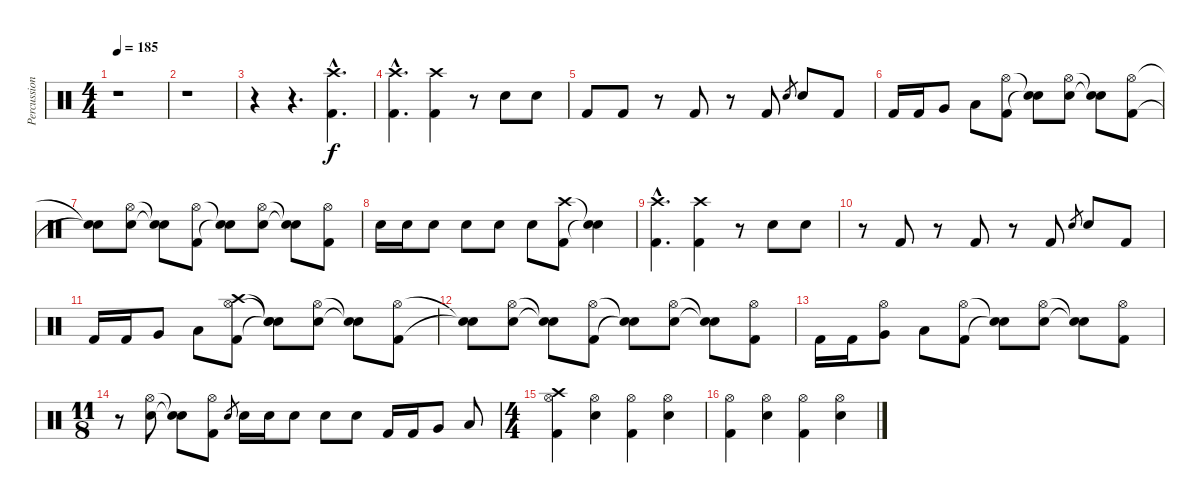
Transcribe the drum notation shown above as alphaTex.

\track ("Percussion" "Percussion") {instrument percussion}
\staff {score}
\articulation defaults
\ts (4 4)
\tempo 185
\clef neutral
\ks c
r.1{dy f} |
r.1 |
r.4 r.4{d} ("Crash high (hit)"{hac} "Kick (hit) 2"{hac}).4{d} |
("Crash high (hit)"{hac} "Kick (hit) 2"{hac}).4{d} ("Crash high (hit)" "Kick (hit) 2").4 r.8 "Electric Snare (hit)".8 "Electric Snare (hit)".8 |
"Kick (hit) 2".8 "Kick (hit) 2".8 r.8 "Kick (hit) 2".8 r.8 "Kick (hit) 2".8 "Electric Snare (hit)".8{gr} "Electric Snare (hit)".8 "Kick (hit) 2".8 |
"Kick (hit) 2".16 "Kick (hit) 2".16 "Very Low Tom (hit)".8 "Low Floor Tom (hit)".8 ("Hi-Hat (open)" "Kick (hit) 2").8 ("Snare (hit)"{t} "Snare (hit)"{t}).8 ("Hi-Hat (open)" "Electric Snare (hit)").8 ("Snare (hit)"{t} "Snare (hit)"{t}).8 ("Hi-Hat (open)" "Kick (hit) 2").8 |
("Snare (hit)"{t} "Snare (hit)"{t}).8 ("Hi-Hat (open)" "Electric Snare (hit)").8 ("Snare (hit)"{t} "Snare (hit)"{t}).8 ("Hi-Hat (open)" "Kick (hit) 2").8 ("Snare (hit)"{t} "Snare (hit)"{t}).8 ("Hi-Hat (open)" "Electric Snare (hit)").8 ("Snare (hit)"{t} "Snare (hit)"{t}).8 ("Hi-Hat (open)" "Kick (hit) 2").8 |
"Electric Snare (hit)".16 "Electric Snare (hit)".16 "Electric Snare (hit)".8 "Electric Snare (hit)".8 "Electric Snare (hit)".8 "Electric Snare (hit)".8 ("Crash high (hit)" "Kick (hit) 2").8 ("Snare (hit)"{t} "Snare (hit)"{t}).4 |
("Crash high (hit)"{hac} "Kick (hit) 2"{hac}).4{d} ("Crash high (hit)" "Kick (hit) 2").4 r.8 "Electric Snare (hit)".8 "Electric Snare (hit)".8 |
r.8 "Kick (hit) 2".8 r.8 "Kick (hit) 2".8 r.8 "Kick (hit) 2".8 "Electric Snare (hit)".8{gr} "Electric Snare (hit)".8 "Kick (hit) 2".8 |
"Kick (hit) 2".16 "Kick (hit) 2".16 "Very Low Tom (hit)".8 "Low Floor Tom (hit)".8 ("Hi-Hat (open)" "Crash high (hit)" "Kick (hit) 2").8 ("Snare (hit)"{t} "Snare (hit)"{t} "Snare (hit)"{t}).8 ("Hi-Hat (open)" "Electric Snare (hit)").8 ("Snare (hit)"{t} "Snare (hit)"{t}).8 ("Hi-Hat (open)" "Kick (hit) 2").8 |
("Snare (hit)"{t} "Snare (hit)"{t}).8 ("Hi-Hat (open)" "Electric Snare (hit)").8 ("Snare (hit)"{t} "Snare (hit)"{t}).8 ("Hi-Hat (open)" "Kick (hit) 2").8 ("Snare (hit)"{t} "Snare (hit)"{t}).8 ("Hi-Hat (open)" "Electric Snare (hit)").8 ("Snare (hit)"{t} "Snare (hit)"{t}).8 ("Hi-Hat (open)" "Kick (hit) 2").8 |
"Kick (hit) 2".16 "Kick (hit) 2".16 ("Hi-Hat (open)" "Very Low Tom (hit)").8 "Low Floor Tom (hit)".8 ("Hi-Hat (open)" "Kick (hit) 2").8 ("Snare (hit)"{t} "Snare (hit)"{t}).8 ("Hi-Hat (open)" "Electric Snare (hit)").8 ("Snare (hit)"{t} "Snare (hit)"{t}).8 ("Hi-Hat (open)" "Kick (hit) 2").8 |
\ts (11 8)
r.8 ("Hi-Hat (open)" "Electric Snare (hit)").8 ("Snare (hit)"{t} "Snare (hit)"{t}).8 ("Hi-Hat (open)" "Kick (hit) 2").8 "Electric Snare (hit)".8{gr} "Electric Snare (hit)".16 "Electric Snare (hit)".16 "Electric Snare (hit)".8 "Electric Snare (hit)".8 "Electric Snare (hit)".8 "Kick (hit) 2".16 "Kick (hit) 2".16 "Very Low Tom (hit)".8 "Low Floor Tom (hit)".8 |
\ts (4 4)
("Hi-Hat (open)" "Crash high (hit)" "Kick (hit) 2").4 ("Hi-Hat (open)" "Electric Snare (hit)").4 ("Hi-Hat (open)" "Kick (hit) 2").4 ("Hi-Hat (open)" "Electric Snare (hit)").4 |
("Hi-Hat (open)" "Kick (hit) 2").4 ("Hi-Hat (open)" "Electric Snare (hit)").4 ("Hi-Hat (open)" "Kick (hit) 2").4 ("Hi-Hat (open)" "Electric Snare (hit)").4
